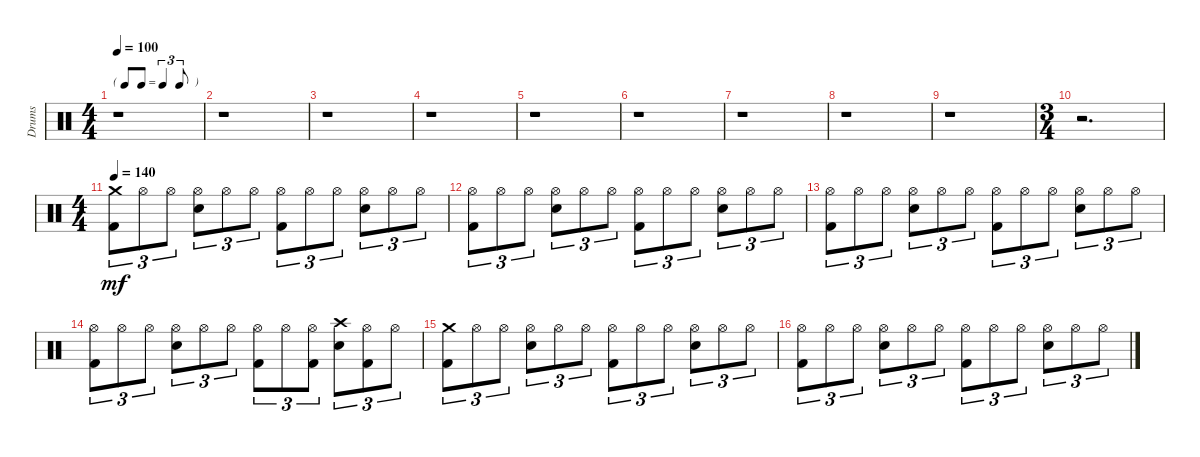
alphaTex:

\track ("Drums" "Drums") {instrument percussion}
\staff {score}
\articulation defaults
\ts (4 4)
\tf triplet8th
\tempo 100
\clef neutral
\ks c
r.1{dy f} |
r.1 |
r.1 |
r.1 |
r.1 |
r.1 |
r.1 |
r.1 |
r.1 |
\ts (3 4)
r.2{d} |
\ts (4 4)
\tempo 140
("Crash medium (hit)" "Kick (hit) 2").8{tu (3 2) dy mf} "Hi-Hat (open)".8{tu (3 2)} "Hi-Hat (open)".8{tu (3 2)} ("Hi-Hat (open)" "Snare (hit) 2").8{tu (3 2)} "Hi-Hat (open)".8{tu (3 2)} "Hi-Hat (open)".8{tu (3 2)} ("Hi-Hat (open)" "Kick (hit) 2").8{tu (3 2)} "Hi-Hat (open)".8{tu (3 2)} "Hi-Hat (open)".8{tu (3 2)} ("Hi-Hat (open)" "Snare (hit) 2").8{tu (3 2)} "Hi-Hat (open)".8{tu (3 2)} "Hi-Hat (open)".8{tu (3 2)} |
("Hi-Hat (open)" "Kick (hit) 2").8{tu (3 2)} "Hi-Hat (open)".8{tu (3 2)} "Hi-Hat (open)".8{tu (3 2)} ("Hi-Hat (open)" "Snare (hit) 2").8{tu (3 2)} "Hi-Hat (open)".8{tu (3 2)} "Hi-Hat (open)".8{tu (3 2)} ("Hi-Hat (open)" "Kick (hit) 2").8{tu (3 2)} "Hi-Hat (open)".8{tu (3 2)} "Hi-Hat (open)".8{tu (3 2)} ("Hi-Hat (open)" "Snare (hit) 2").8{tu (3 2)} "Hi-Hat (open)".8{tu (3 2)} "Hi-Hat (open)".8{tu (3 2)} |
("Hi-Hat (open)" "Kick (hit) 2").8{tu (3 2)} "Hi-Hat (open)".8{tu (3 2)} "Hi-Hat (open)".8{tu (3 2)} ("Hi-Hat (open)" "Snare (hit) 2").8{tu (3 2)} "Hi-Hat (open)".8{tu (3 2)} "Hi-Hat (open)".8{tu (3 2)} ("Hi-Hat (open)" "Kick (hit) 2").8{tu (3 2)} "Hi-Hat (open)".8{tu (3 2)} "Hi-Hat (open)".8{tu (3 2)} ("Hi-Hat (open)" "Snare (hit) 2").8{tu (3 2)} "Hi-Hat (open)".8{tu (3 2)} "Hi-Hat (open)".8{tu (3 2)} |
("Hi-Hat (open)" "Kick (hit) 2").8{tu (3 2)} "Hi-Hat (open)".8{tu (3 2)} "Hi-Hat (open)".8{tu (3 2)} ("Hi-Hat (open)" "Snare (hit) 2").8{tu (3 2)} "Hi-Hat (open)".8{tu (3 2)} "Hi-Hat (open)".8{tu (3 2)} ("Hi-Hat (open)" "Kick (hit) 2").8{tu (3 2)} "Hi-Hat (open)".8{tu (3 2)} ("Hi-Hat (open)" "Kick (hit) 2").8{tu (3 2)} ("Crash high (hit)" "Snare (hit) 2").8{tu (3 2)} ("Hi-Hat (open)" "Kick (hit) 2").8{tu (3 2)} "Hi-Hat (open)".8{tu (3 2)} |
("Crash medium (hit)" "Kick (hit) 2").8{tu (3 2)} "Hi-Hat (open)".8{tu (3 2)} "Hi-Hat (open)".8{tu (3 2)} ("Hi-Hat (open)" "Snare (hit) 2").8{tu (3 2)} "Hi-Hat (open)".8{tu (3 2)} "Hi-Hat (open)".8{tu (3 2)} ("Hi-Hat (open)" "Kick (hit) 2").8{tu (3 2)} "Hi-Hat (open)".8{tu (3 2)} "Hi-Hat (open)".8{tu (3 2)} ("Hi-Hat (open)" "Snare (hit) 2").8{tu (3 2)} "Hi-Hat (open)".8{tu (3 2)} "Hi-Hat (open)".8{tu (3 2)} |
("Hi-Hat (open)" "Kick (hit) 2").8{tu (3 2)} "Hi-Hat (open)".8{tu (3 2)} "Hi-Hat (open)".8{tu (3 2)} ("Hi-Hat (open)" "Snare (hit) 2").8{tu (3 2)} "Hi-Hat (open)".8{tu (3 2)} "Hi-Hat (open)".8{tu (3 2)} ("Hi-Hat (open)" "Kick (hit) 2").8{tu (3 2)} "Hi-Hat (open)".8{tu (3 2)} "Hi-Hat (open)".8{tu (3 2)} ("Hi-Hat (open)" "Snare (hit) 2").8{tu (3 2)} "Hi-Hat (open)".8{tu (3 2)} "Hi-Hat (open)".8{tu (3 2)}
